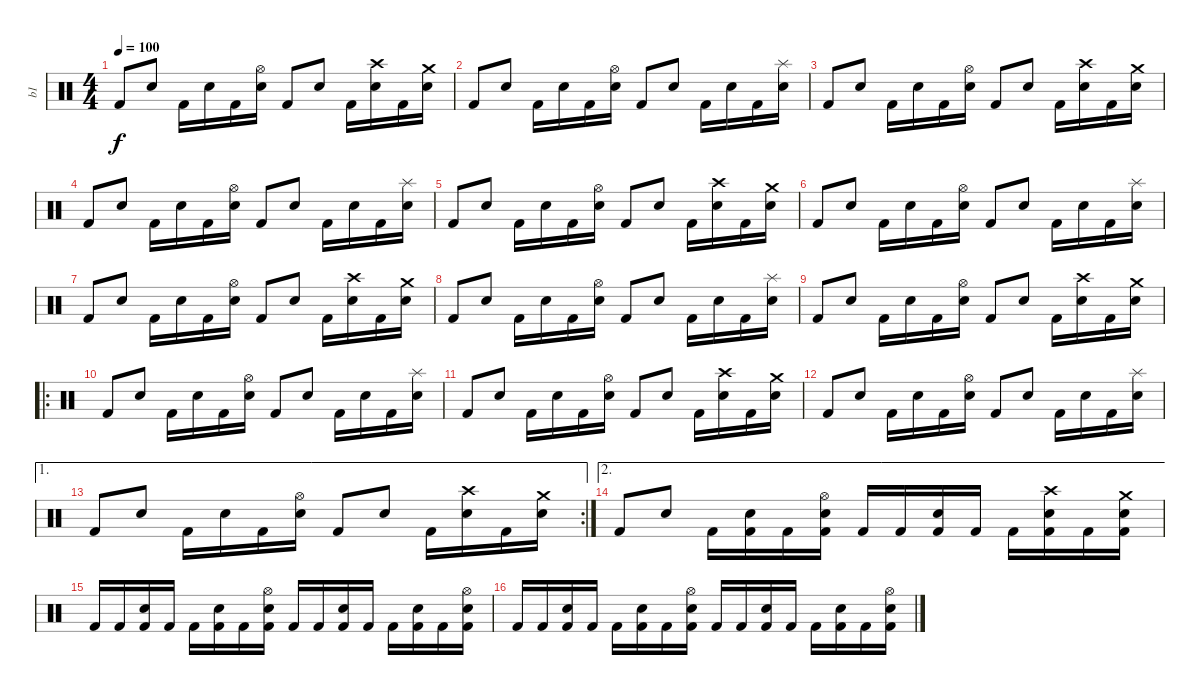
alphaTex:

\track ("b1" "b1") {instrument percussion}
\staff {score}
\articulation defaults
\ts (4 4)
\tempo 100
\clef neutral
\ks c "Kick (hit) 2".8{dy f} "Electric Snare (hit)".8 "Kick (hit) 2".16 "Electric Snare (hit)".16 "Kick (hit) 2".16
("Hi-Hat (open)" "Electric Snare (hit)").16 "Kick (hit) 2".8 "Electric Snare (hit)".8 "Kick (hit) 2".16 ("Crash high (hit)" "Electric Snare (hit)").16 "Kick (hit) 2".16 ("Crash medium (hit)" "Electric Snare (hit)").16 |
"Kick (hit) 2".8 "Electric Snare (hit)".8 "Kick (hit) 2".16 "Electric Snare (hit)".16 "Kick (hit) 2".16 ("Hi-Hat (open)" "Electric Snare (hit)").16 "Kick (hit) 2".8 "Electric Snare (hit)".8 "Kick (hit) 2".16 "Electric Snare (hit)".16 "Kick (hit) 2".16 ("Splash (hit)" "Electric Snare (hit)").16 |
"Kick (hit) 2".8 "Electric Snare (hit)".8 "Kick (hit) 2".16 "Electric Snare (hit)".16 "Kick (hit) 2".16 ("Hi-Hat (open)" "Electric Snare (hit)").16 "Kick (hit) 2".8 "Electric Snare (hit)".8 "Kick (hit) 2".16 ("Crash high (hit)" "Electric Snare (hit)").16 "Kick (hit) 2".16 ("Crash medium (hit)" "Electric Snare (hit)").16 |
"Kick (hit) 2".8 "Electric Snare (hit)".8 "Kick (hit) 2".16 "Electric Snare (hit)".16 "Kick (hit) 2".16 ("Hi-Hat (open)" "Electric Snare (hit)").16 "Kick (hit) 2".8 "Electric Snare (hit)".8 "Kick (hit) 2".16 "Electric Snare (hit)".16 "Kick (hit) 2".16 ("Splash (hit)" "Electric Snare (hit)").16 |
"Kick (hit) 2".8 "Electric Snare (hit)".8 "Kick (hit) 2".16 "Electric Snare (hit)".16 "Kick (hit) 2".16 ("Hi-Hat (open)" "Electric Snare (hit)").16 "Kick (hit) 2".8 "Electric Snare (hit)".8 "Kick (hit) 2".16 ("Crash high (hit)" "Electric Snare (hit)").16 "Kick (hit) 2".16 ("Crash medium (hit)" "Electric Snare (hit)").16 |
"Kick (hit) 2".8 "Electric Snare (hit)".8 "Kick (hit) 2".16 "Electric Snare (hit)".16 "Kick (hit) 2".16 ("Hi-Hat (open)" "Electric Snare (hit)").16 "Kick (hit) 2".8 "Electric Snare (hit)".8 "Kick (hit) 2".16 "Electric Snare (hit)".16 "Kick (hit) 2".16 ("Splash (hit)" "Electric Snare (hit)").16 |
"Kick (hit) 2".8 "Electric Snare (hit)".8 "Kick (hit) 2".16 "Electric Snare (hit)".16 "Kick (hit) 2".16 ("Hi-Hat (open)" "Electric Snare (hit)").16 "Kick (hit) 2".8 "Electric Snare (hit)".8 "Kick (hit) 2".16 ("Crash high (hit)" "Electric Snare (hit)").16 "Kick (hit) 2".16 ("Crash medium (hit)" "Electric Snare (hit)").16 |
"Kick (hit) 2".8 "Electric Snare (hit)".8 "Kick (hit) 2".16 "Electric Snare (hit)".16 "Kick (hit) 2".16 ("Hi-Hat (open)" "Electric Snare (hit)").16 "Kick (hit) 2".8 "Electric Snare (hit)".8 "Kick (hit) 2".16 "Electric Snare (hit)".16 "Kick (hit) 2".16 ("Splash (hit)" "Electric Snare (hit)").16 |
"Kick (hit) 2".8 "Electric Snare (hit)".8 "Kick (hit) 2".16 "Electric Snare (hit)".16 "Kick (hit) 2".16 ("Hi-Hat (open)" "Electric Snare (hit)").16 "Kick (hit) 2".8 "Electric Snare (hit)".8 "Kick (hit) 2".16 ("Crash high (hit)" "Electric Snare (hit)").16 "Kick (hit) 2".16 ("Crash medium (hit)" "Electric Snare (hit)").16 |
\ro "Kick (hit) 2".8 "Electric Snare (hit)".8 "Kick (hit) 2".16 "Electric Snare (hit)".16 "Kick (hit) 2".16
("Hi-Hat (open)" "Electric Snare (hit)").16 "Kick (hit) 2".8 "Electric Snare (hit)".8 "Kick (hit) 2".16 "Electric Snare (hit)".16 "Kick (hit) 2".16 ("Splash (hit)" "Electric Snare (hit)").16 |
"Kick (hit) 2".8 "Electric Snare (hit)".8 "Kick (hit) 2".16 "Electric Snare (hit)".16 "Kick (hit) 2".16 ("Hi-Hat (open)" "Electric Snare (hit)").16 "Kick (hit) 2".8 "Electric Snare (hit)".8 "Kick (hit) 2".16 ("Crash high (hit)" "Electric Snare (hit)").16 "Kick (hit) 2".16 ("Crash medium (hit)" "Electric Snare (hit)").16 |
"Kick (hit) 2".8 "Electric Snare (hit)".8 "Kick (hit) 2".16 "Electric Snare (hit)".16 "Kick (hit) 2".16 ("Hi-Hat (open)" "Electric Snare (hit)").16 "Kick (hit) 2".8 "Electric Snare (hit)".8 "Kick (hit) 2".16 "Electric Snare (hit)".16 "Kick (hit) 2".16 ("Splash (hit)" "Electric Snare (hit)").16 |
\ae 1
\rc 2 "Kick (hit) 2".8 "Electric Snare (hit)".8 "Kick (hit) 2".16 "Electric Snare (hit)".16 "Kick (hit) 2".16
("Hi-Hat (open)" "Electric Snare (hit)").16 "Kick (hit) 2".8 "Electric Snare (hit)".8 "Kick (hit) 2".16 ("Crash high (hit)" "Electric Snare (hit)").16 "Kick (hit) 2".16 ("Crash medium (hit)" "Electric Snare (hit)").16 |
\ae 2 "Kick (hit) 2".8 "Electric Snare (hit)".8 "Kick (hit) 2".16
("Electric Snare (hit)" "Kick (hit) 2").16 "Kick (hit) 2".16 ("Hi-Hat (open)" "Electric Snare (hit)" "Kick (hit) 2").16 "Kick (hit) 2".16 "Kick (hit) 2".16 ("Electric Snare (hit)" "Kick (hit) 2").16 "Kick (hit) 2".16 "Kick (hit) 2".16 ("Crash high (hit)" "Electric Snare (hit)" "Kick (hit) 2").16 "Kick (hit) 2".16 ("Crash medium (hit)" "Electric Snare (hit)" "Kick (hit) 2").16 |
"Kick (hit) 2".16 "Kick (hit) 2".16 ("Electric Snare (hit)" "Kick (hit) 2").16 "Kick (hit) 2".16 "Kick (hit) 2".16 ("Electric Snare (hit)" "Kick (hit) 2").16 "Kick (hit) 2".16 ("Hi-Hat (open)" "Electric Snare (hit)" "Kick (hit) 2").16 "Kick (hit) 2".16 "Kick (hit) 2".16 ("Electric Snare (hit)" "Kick (hit) 2").16 "Kick (hit) 2".16 "Kick (hit) 2".16 ("Electric Snare (hit)" "Kick (hit) 2").16 "Kick (hit) 2".16 ("Hi-Hat (open)" "Electric Snare (hit)" "Kick (hit) 2").16 |
"Kick (hit) 2".16 "Kick (hit) 2".16 ("Electric Snare (hit)" "Kick (hit) 2").16 "Kick (hit) 2".16 "Kick (hit) 2".16 ("Electric Snare (hit)" "Kick (hit) 2").16 "Kick (hit) 2".16 ("Hi-Hat (open)" "Electric Snare (hit)" "Kick (hit) 2").16 "Kick (hit) 2".16 "Kick (hit) 2".16 ("Electric Snare (hit)" "Kick (hit) 2").16 "Kick (hit) 2".16 "Kick (hit) 2".16 ("Electric Snare (hit)" "Kick (hit) 2").16 "Kick (hit) 2".16 ("Hi-Hat (open)" "Electric Snare (hit)" "Kick (hit) 2").16
